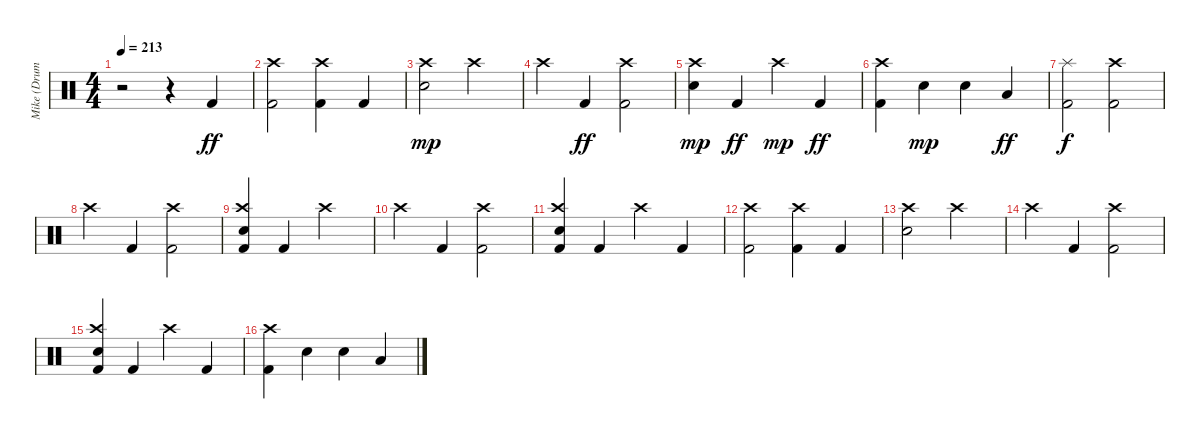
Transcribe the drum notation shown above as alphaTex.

\track ("Mike (Drums)" "Mike (Drum") {instrument percussion}
\staff {score}
\articulation defaults
\ts (4 4)
\tempo 213
\clef neutral
\ks c
r.2{dy ff} r.4 "Kick (hit) 2".4 |
("Crash high (hit)" "Kick (hit) 2").2 ("Crash high (hit)" "Kick (hit) 2").4 "Kick (hit) 2".4 |
("Crash high (hit)" "Electric Snare (hit)").2{dy mp} "Crash high (hit)".2 |
"Crash high (hit)".4 "Kick (hit) 2".4{dy ff} ("Crash high (hit)" "Kick (hit) 2").2 |
("Crash high (hit)" "Electric Snare (hit)").4{dy mp} "Kick (hit) 2".4{dy ff} "Crash high (hit)".4{dy mp} "Kick (hit) 2".4{dy ff} |
("Crash high (hit)" "Kick (hit) 2").4 "Electric Snare (hit)".4{dy mp} "Electric Snare (hit)".4 "Low Tom (hit)".4{dy ff} |
("Splash (hit)" "Kick (hit) 2").2{dy f} ("Crash high (hit)" "Kick (hit) 2").2 |
"Crash high (hit)".4 "Kick (hit) 2".4 ("Crash high (hit)" "Kick (hit) 2").2 |
("Crash high (hit)" "Electric Snare (hit)" "Kick (hit) 2").4 "Kick (hit) 2".4 "Crash high (hit)".2 |
"Crash high (hit)".4 "Kick (hit) 2".4 ("Crash high (hit)" "Kick (hit) 2").2 |
("Crash high (hit)" "Electric Snare (hit)" "Kick (hit) 2").4 "Kick (hit) 2".4 "Crash high (hit)".4 "Kick (hit) 2".4 |
("Crash high (hit)" "Kick (hit) 2").2 ("Crash high (hit)" "Kick (hit) 2").4 "Kick (hit) 2".4 |
("Crash high (hit)" "Electric Snare (hit)").2 "Crash high (hit)".2 |
"Crash high (hit)".4 "Kick (hit) 2".4 ("Crash high (hit)" "Kick (hit) 2").2 |
("Crash high (hit)" "Electric Snare (hit)" "Kick (hit) 2").4 "Kick (hit) 2".4 "Crash high (hit)".4 "Kick (hit) 2".4 |
("Crash high (hit)" "Kick (hit) 2").4 "Electric Snare (hit)".4 "Electric Snare (hit)".4 "Low Tom (hit)".4
